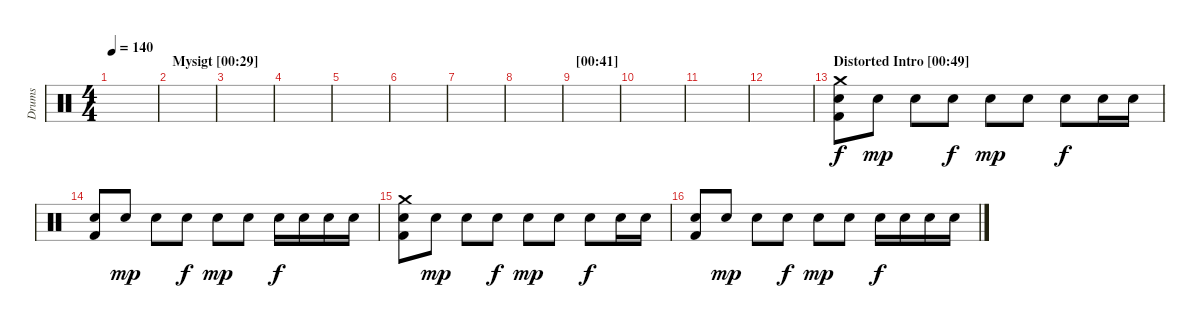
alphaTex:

\track ("Drums" "Drums") {instrument percussion}
\staff {score}
\articulation defaults
\ts (4 4)
\tempo 140
\clef neutral
\ks c
|
\section ("" "Mysigt [00:29]")
|
|
|
|
|
|
|
\section ("" "[00:41]")
|
|
|
|
\section ("" "Distorted Intro [00:49]")
("Crash medium (hit)" "Electric Snare (hit)" "Kick (hit) 2").8 "Electric Snare (hit)".8{dy mp} "Electric Snare (hit)".8 "Electric Snare (hit)".8{dy f} "Electric Snare (hit)".8{dy mp} "Electric Snare (hit)".8 "Electric Snare (hit)".8{dy f} "Electric Snare (hit)".16 "Electric Snare (hit)".16 |
("Electric Snare (hit)" "Kick (hit) 2").8 "Electric Snare (hit)".8{dy mp} "Electric Snare (hit)".8 "Electric Snare (hit)".8{dy f} "Electric Snare (hit)".8{dy mp} "Electric Snare (hit)".8 "Electric Snare (hit)".16{dy f} "Electric Snare (hit)".16 "Electric Snare (hit)".16 "Electric Snare (hit)".16 |
("Crash medium (hit)" "Electric Snare (hit)" "Kick (hit) 2").8 "Electric Snare (hit)".8{dy mp} "Electric Snare (hit)".8 "Electric Snare (hit)".8{dy f} "Electric Snare (hit)".8{dy mp} "Electric Snare (hit)".8 "Electric Snare (hit)".8{dy f} "Electric Snare (hit)".16 "Electric Snare (hit)".16 |
("Electric Snare (hit)" "Kick (hit) 2").8 "Electric Snare (hit)".8{dy mp} "Electric Snare (hit)".8 "Electric Snare (hit)".8{dy f} "Electric Snare (hit)".8{dy mp} "Electric Snare (hit)".8 "Electric Snare (hit)".16{dy f} "Electric Snare (hit)".16 "Electric Snare (hit)".16 "Electric Snare (hit)".16
